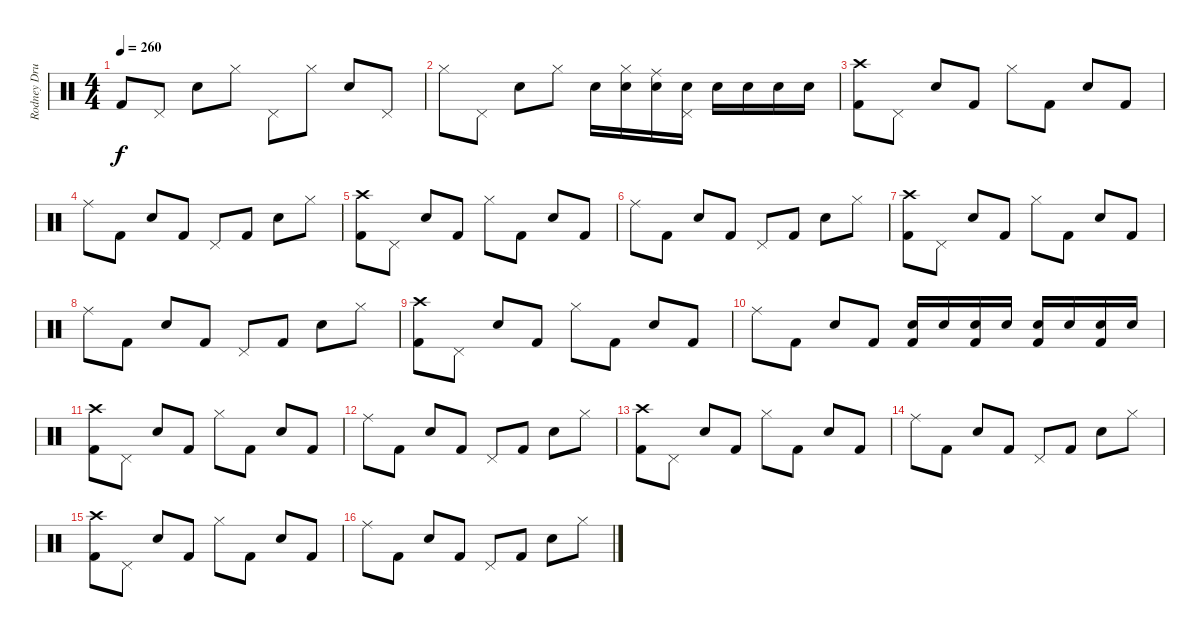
\track ("Rodney Drums" "Rodney Dru") {instrument percussion}
\staff {score}
\articulation defaults
\ts (4 4)
\tempo 260
\clef neutral
\ks c "Kick (hit) 2".8{dy f} "Pedal Hi-Hat (hit)".8 "Electric Snare (hit)".8 "Hi-Hat (closed)".8 "Pedal Hi-Hat (hit)".8 "Hi-Hat (closed)".8 "Electric Snare (hit)".8 "Pedal Hi-Hat (hit)".8
|
"Hi-Hat (closed)".8 "Pedal Hi-Hat (hit)".8 "Electric Snare (hit)".8 "Hi-Hat (closed)".8 "Electric Snare (hit)".16 ("Hi-Hat (closed)" "Electric Snare (hit)").16 ("Electric Snare (hit)" "Ride (middle)").16 ("Pedal Hi-Hat (hit)" "Electric Snare (hit)").16 "Electric Snare (hit)".16 "Electric Snare (hit)".16 "Electric Snare (hit)".16 "Electric Snare (hit)".16 |
("Crash high (hit)" "Kick (hit) 2").8 "Pedal Hi-Hat (hit)".8 "Electric Snare (hit)".8 "Kick (hit) 2".8 "Hi-Hat (closed)".8 "Kick (hit) 2".8 "Electric Snare (hit)".8 "Kick (hit) 2".8 |
"Ride (middle)".8 "Kick (hit) 2".8 "Electric Snare (hit)".8 "Kick (hit) 2".8 "Pedal Hi-Hat (hit)".8 "Kick (hit) 2".8 "Electric Snare (hit)".8 "Hi-Hat (closed)".8 |
("Crash high (hit)" "Kick (hit) 2").8 "Pedal Hi-Hat (hit)".8 "Electric Snare (hit)".8 "Kick (hit) 2".8 "Hi-Hat (closed)".8 "Kick (hit) 2".8 "Electric Snare (hit)".8 "Kick (hit) 2".8 |
"Ride (middle)".8 "Kick (hit) 2".8 "Electric Snare (hit)".8 "Kick (hit) 2".8 "Pedal Hi-Hat (hit)".8 "Kick (hit) 2".8 "Electric Snare (hit)".8 "Hi-Hat (closed)".8 |
("Crash high (hit)" "Kick (hit) 2").8 "Pedal Hi-Hat (hit)".8 "Electric Snare (hit)".8 "Kick (hit) 2".8 "Hi-Hat (closed)".8 "Kick (hit) 2".8 "Electric Snare (hit)".8 "Kick (hit) 2".8 |
"Ride (middle)".8 "Kick (hit) 2".8 "Electric Snare (hit)".8 "Kick (hit) 2".8 "Pedal Hi-Hat (hit)".8 "Kick (hit) 2".8 "Electric Snare (hit)".8 "Hi-Hat (closed)".8 |
("Crash high (hit)" "Kick (hit) 2").8 "Pedal Hi-Hat (hit)".8 "Electric Snare (hit)".8 "Kick (hit) 2".8 "Hi-Hat (closed)".8 "Kick (hit) 2".8 "Electric Snare (hit)".8 "Kick (hit) 2".8 |
"Ride (middle)".8 "Kick (hit) 2".8 "Electric Snare (hit)".8 "Kick (hit) 2".8 ("Electric Snare (hit)" "Kick (hit) 2").16 "Electric Snare (hit)".16 ("Electric Snare (hit)" "Kick (hit) 2").16 "Electric Snare (hit)".16 ("Electric Snare (hit)" "Kick (hit) 2").16 "Electric Snare (hit)".16 ("Electric Snare (hit)" "Kick (hit) 2").16 "Electric Snare (hit)".16 |
("Crash high (hit)" "Kick (hit) 2").8 "Pedal Hi-Hat (hit)".8 "Electric Snare (hit)".8 "Kick (hit) 2".8 "Hi-Hat (closed)".8 "Kick (hit) 2".8 "Electric Snare (hit)".8 "Kick (hit) 2".8 |
"Ride (middle)".8 "Kick (hit) 2".8 "Electric Snare (hit)".8 "Kick (hit) 2".8 "Pedal Hi-Hat (hit)".8 "Kick (hit) 2".8 "Electric Snare (hit)".8 "Hi-Hat (closed)".8 |
("Crash high (hit)" "Kick (hit) 2").8 "Pedal Hi-Hat (hit)".8 "Electric Snare (hit)".8 "Kick (hit) 2".8 "Hi-Hat (closed)".8 "Kick (hit) 2".8 "Electric Snare (hit)".8 "Kick (hit) 2".8 |
"Ride (middle)".8 "Kick (hit) 2".8 "Electric Snare (hit)".8 "Kick (hit) 2".8 "Pedal Hi-Hat (hit)".8 "Kick (hit) 2".8 "Electric Snare (hit)".8 "Hi-Hat (closed)".8 |
("Crash high (hit)" "Kick (hit) 2").8 "Pedal Hi-Hat (hit)".8 "Electric Snare (hit)".8 "Kick (hit) 2".8 "Hi-Hat (closed)".8 "Kick (hit) 2".8 "Electric Snare (hit)".8 "Kick (hit) 2".8 |
"Ride (middle)".8 "Kick (hit) 2".8 "Electric Snare (hit)".8 "Kick (hit) 2".8 "Pedal Hi-Hat (hit)".8 "Kick (hit) 2".8 "Electric Snare (hit)".8 "Hi-Hat (closed)".8
